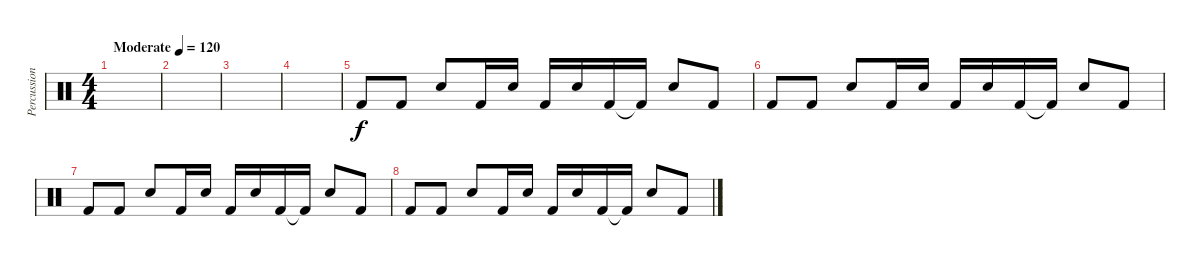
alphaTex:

\track ("Percussion" "Percussion") {instrument percussion}
\staff {score}
\articulation defaults
\ts (4 4)
\tempo (120 "Moderate")
\clef neutral
\ks c
|
|
|
|
"Kick (hit) 2".8 "Kick (hit) 2".8 "Electric Snare (hit)".8 "Kick (hit) 2".16 "Electric Snare (hit)".16 "Kick (hit) 2".16 "Electric Snare (hit)".16 "Kick (hit) 2".16 "Kick (hit) 2"{t}.16 "Electric Snare (hit)".8 "Kick (hit) 2".8 |
"Kick (hit) 2".8 "Kick (hit) 2".8 "Electric Snare (hit)".8 "Kick (hit) 2".16 "Electric Snare (hit)".16 "Kick (hit) 2".16 "Electric Snare (hit)".16 "Kick (hit) 2".16 "Kick (hit) 2"{t}.16 "Electric Snare (hit)".8 "Kick (hit) 2".8 |
"Kick (hit) 2".8 "Kick (hit) 2".8 "Electric Snare (hit)".8 "Kick (hit) 2".16 "Electric Snare (hit)".16 "Kick (hit) 2".16 "Electric Snare (hit)".16 "Kick (hit) 2".16 "Kick (hit) 2"{t}.16 "Electric Snare (hit)".8 "Kick (hit) 2".8 |
"Kick (hit) 2".8 "Kick (hit) 2".8 "Electric Snare (hit)".8 "Kick (hit) 2".16 "Electric Snare (hit)".16 "Kick (hit) 2".16 "Electric Snare (hit)".16 "Kick (hit) 2".16 "Kick (hit) 2"{t}.16 "Electric Snare (hit)".8 "Kick (hit) 2".8
